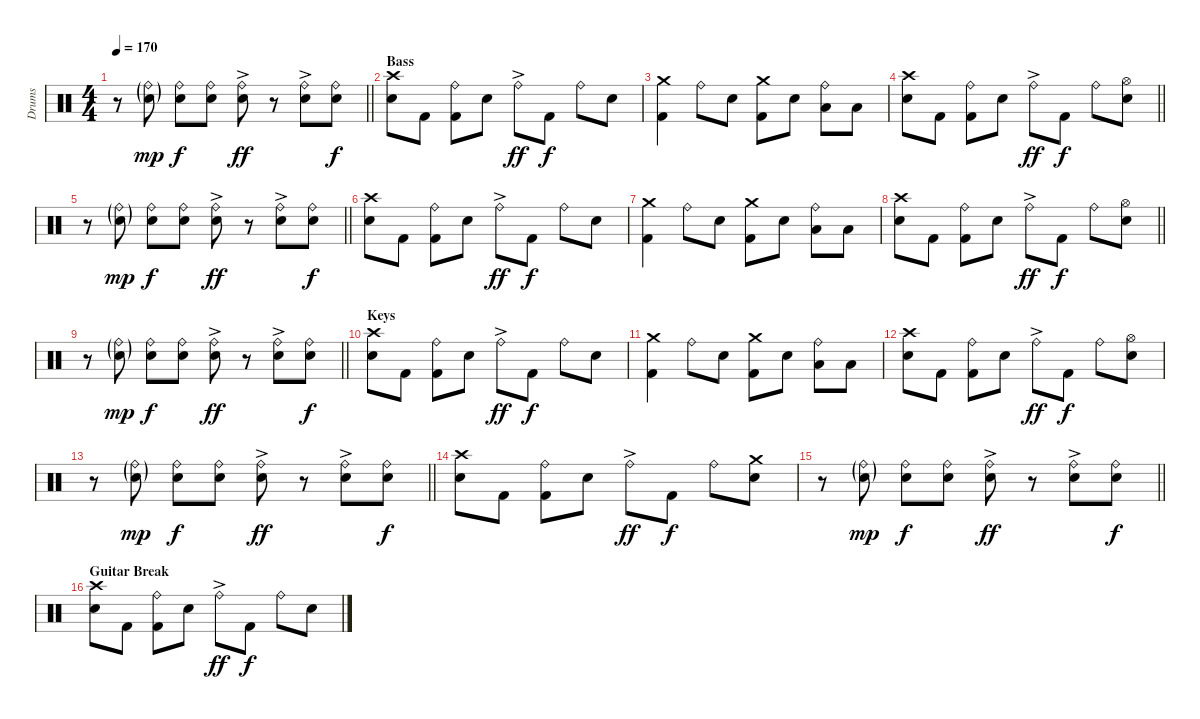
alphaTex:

\track ("Drums" "Drums") {instrument percussion}
\staff {score}
\articulation defaults
\ts (4 4)
\tempo 170
\clef neutral
\barLineRight lightlight
\ks c
r.8{dy f} ("Ride (bell)"{g} "Electric Snare (hit)"{g}).8{dy mp} ("Ride (bell)" "Electric Snare (hit)").8{dy f} ("Ride (bell)" "Electric Snare (hit)").8 ("Ride (bell)"{ac} "Electric Snare (hit)"{ac}).8{dy ff} r.8 ("Ride (bell)"{ac} "Electric Snare (hit)"{ac}).8 ("Ride (bell)" "Electric Snare (hit)").8{dy f} |
\section ("" "Bass")
("Crash high (hit)" "Snare (hit) 2").8 "Kick (hit) 2".8 ("Ride (bell)" "Kick (hit) 2").8 "Snare (hit) 2".8 "Ride (bell)"{ac}.8{dy ff} "Kick (hit) 2".8{dy f} "Ride (bell)".8 "Snare (hit) 2".8 |
("Crash medium (hit)" "Kick (hit) 2").4 "Ride (bell)".8 "Snare (hit) 2".8 ("Crash medium (hit)" "Kick (hit) 2").8 "Electric Snare (hit)".8 ("Ride (bell)" "Low Tom (hit)").8 "Low Tom (hit)".8 |
\barLineRight lightlight
("Crash high (hit)" "Snare (hit) 2").8 "Kick (hit) 2".8 ("Ride (bell)" "Kick (hit) 2").8 "Snare (hit) 2".8 "Ride (bell)"{ac}.8{dy ff} "Kick (hit) 2".8{dy f} "Ride (bell)".8 ("Hi-Hat (open)" "Snare (hit) 2").8 |
\barLineRight lightlight
r.8 ("Ride (bell)"{g} "Electric Snare (hit)"{g}).8{dy mp} ("Ride (bell)" "Electric Snare (hit)").8{dy f} ("Ride (bell)" "Electric Snare (hit)").8 ("Ride (bell)"{ac} "Electric Snare (hit)"{ac}).8{dy ff} r.8 ("Ride (bell)"{ac} "Electric Snare (hit)"{ac}).8 ("Ride (bell)" "Electric Snare (hit)").8{dy f} |
\section ("" "")
("Crash high (hit)" "Snare (hit) 2").8 "Kick (hit) 2".8 ("Ride (bell)" "Kick (hit) 2").8 "Snare (hit) 2".8 "Ride (bell)"{ac}.8{dy ff} "Kick (hit) 2".8{dy f} "Ride (bell)".8 "Snare (hit) 2".8 |
("Crash medium (hit)" "Kick (hit) 2").4 "Ride (bell)".8 "Snare (hit) 2".8 ("Crash medium (hit)" "Kick (hit) 2").8 "Electric Snare (hit)".8 ("Ride (bell)" "Low Tom (hit)").8 "Low Tom (hit)".8 |
\barLineRight lightlight
("Crash high (hit)" "Snare (hit) 2").8 "Kick (hit) 2".8 ("Ride (bell)" "Kick (hit) 2").8 "Snare (hit) 2".8 "Ride (bell)"{ac}.8{dy ff} "Kick (hit) 2".8{dy f} "Ride (bell)".8 ("Hi-Hat (open)" "Snare (hit) 2").8 |
\barLineRight lightlight
r.8 ("Ride (bell)"{g} "Electric Snare (hit)"{g}).8{dy mp} ("Ride (bell)" "Electric Snare (hit)").8{dy f} ("Ride (bell)" "Electric Snare (hit)").8 ("Ride (bell)"{ac} "Electric Snare (hit)"{ac}).8{dy ff} r.8 ("Ride (bell)"{ac} "Electric Snare (hit)"{ac}).8 ("Ride (bell)" "Electric Snare (hit)").8{dy f} |
\section ("" "Keys")
("Crash high (hit)" "Snare (hit) 2").8 "Kick (hit) 2".8 ("Ride (bell)" "Kick (hit) 2").8 "Snare (hit) 2".8 "Ride (bell)"{ac}.8{dy ff} "Kick (hit) 2".8{dy f} "Ride (bell)".8 "Snare (hit) 2".8 |
("Crash medium (hit)" "Kick (hit) 2").4 "Ride (bell)".8 "Snare (hit) 2".8 ("Crash medium (hit)" "Kick (hit) 2").8 "Electric Snare (hit)".8 ("Ride (bell)" "Low Tom (hit)").8 "Low Tom (hit)".8 |
("Crash high (hit)" "Snare (hit) 2").8 "Kick (hit) 2".8 ("Ride (bell)" "Kick (hit) 2").8 "Snare (hit) 2".8 "Ride (bell)"{ac}.8{dy ff} "Kick (hit) 2".8{dy f} "Ride (bell)".8 ("Hi-Hat (open)" "Snare (hit) 2").8 |
\barLineRight lightlight
r.8 ("Ride (bell)"{g} "Electric Snare (hit)"{g}).8{dy mp} ("Ride (bell)" "Electric Snare (hit)").8{dy f} ("Ride (bell)" "Electric Snare (hit)").8 ("Ride (bell)"{ac} "Electric Snare (hit)"{ac}).8{dy ff} r.8 ("Ride (bell)"{ac} "Electric Snare (hit)"{ac}).8 ("Ride (bell)" "Electric Snare (hit)").8{dy f} |
\section ("" "")
("Crash high (hit)" "Snare (hit) 2").8 "Kick (hit) 2".8 ("Ride (bell)" "Kick (hit) 2").8 "Snare (hit) 2".8 "Ride (bell)"{ac}.8{dy ff} "Kick (hit) 2".8{dy f} "Ride (bell)".8 ("Crash medium (hit)" "Snare (hit) 2").8 |
\barLineRight lightlight
r.8 ("Ride (bell)"{g} "Electric Snare (hit)"{g}).8{dy mp} ("Ride (bell)" "Electric Snare (hit)").8{dy f} ("Ride (bell)" "Electric Snare (hit)").8 ("Ride (bell)"{ac} "Electric Snare (hit)"{ac}).8{dy ff} r.8 ("Ride (bell)"{ac} "Electric Snare (hit)"{ac}).8 ("Ride (bell)" "Electric Snare (hit)").8{dy f} |
\section ("" "Guitar Break")
("Crash high (hit)" "Snare (hit) 2").8 "Kick (hit) 2".8 ("Ride (bell)" "Kick (hit) 2").8 "Snare (hit) 2".8 "Ride (bell)"{ac}.8{dy ff} "Kick (hit) 2".8{dy f} "Ride (bell)".8 "Snare (hit) 2".8
